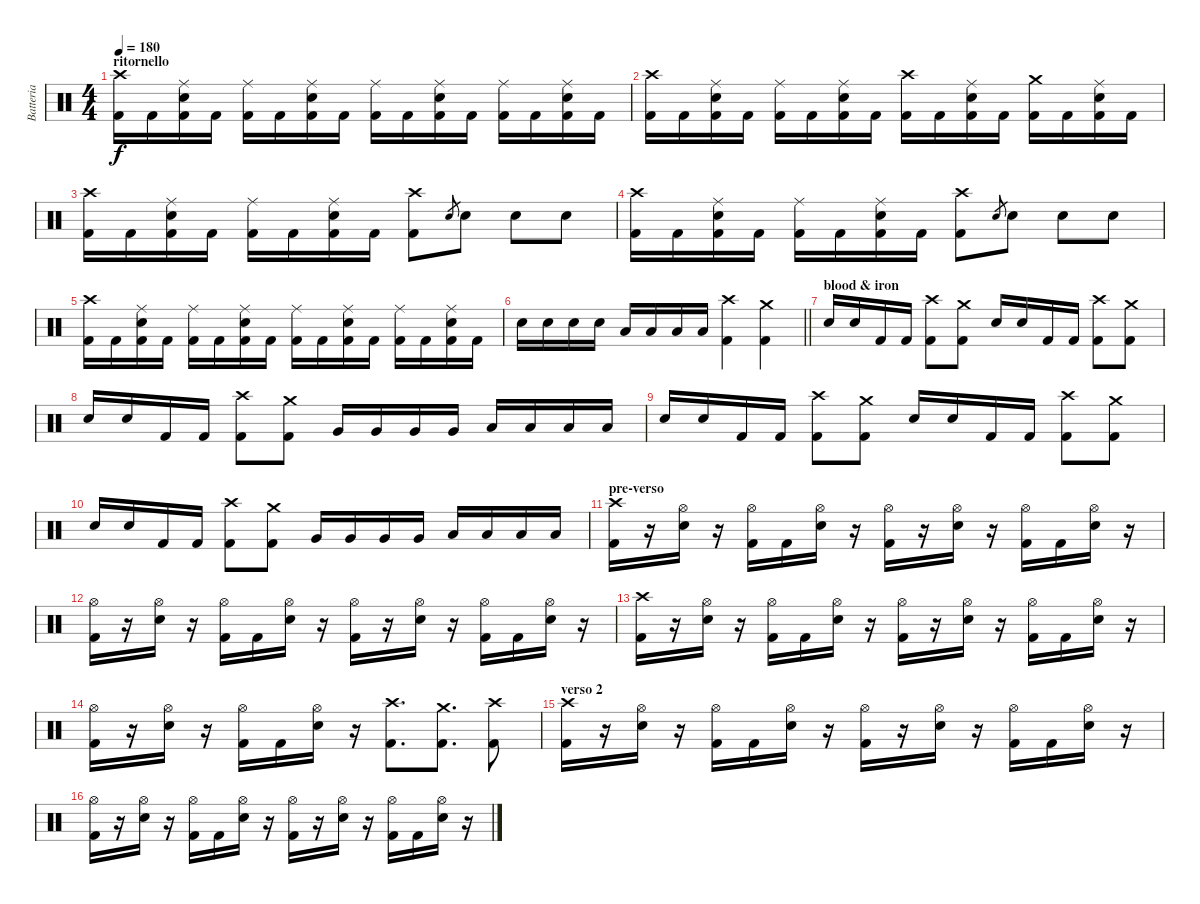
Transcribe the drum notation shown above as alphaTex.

\track ("Batteria" "Batteria") {instrument percussion}
\staff {score}
\articulation defaults
\ts (4 4)
\section ("" "ritornello")
\tempo 180
\clef neutral
\ks c
("Crash high (hit)" "Kick (hit) 2").16{dy f} "Kick (hit) 2".16 ("Ride (middle)" "Snare (hit) 2" "Kick (hit) 2").16 "Kick (hit) 2".16 ("Ride (middle)" "Kick (hit) 2").16 "Kick (hit) 2".16 ("Ride (middle)" "Snare (hit) 2" "Kick (hit) 2").16 "Kick (hit) 2".16 ("Ride (middle)" "Kick (hit) 2").16 "Kick (hit) 2".16 ("Ride (middle)" "Snare (hit) 2" "Kick (hit) 2").16 "Kick (hit) 2".16 ("Ride (middle)" "Kick (hit) 2").16 "Kick (hit) 2".16 ("Ride (middle)" "Snare (hit) 2" "Kick (hit) 2").16 "Kick (hit) 2".16 |
("Crash high (hit)" "Kick (hit) 2").16 "Kick (hit) 2".16 ("Ride (middle)" "Snare (hit) 2" "Kick (hit) 2").16 "Kick (hit) 2".16 ("Ride (middle)" "Kick (hit) 2").16 "Kick (hit) 2".16 ("Ride (middle)" "Snare (hit) 2" "Kick (hit) 2").16 "Kick (hit) 2".16 ("Crash high (hit)" "Kick (hit) 2").16 "Kick (hit) 2".16 ("Ride (middle)" "Snare (hit) 2" "Kick (hit) 2").16 "Kick (hit) 2".16 ("Crash medium (hit)" "Kick (hit) 2").16 "Kick (hit) 2".16 ("Ride (middle)" "Snare (hit) 2" "Kick (hit) 2").16 "Kick (hit) 2".16 |
("Crash high (hit)" "Kick (hit) 2").16 "Kick (hit) 2".16 ("Ride (middle)" "Snare (hit) 2" "Kick (hit) 2").16 "Kick (hit) 2".16 ("Ride (middle)" "Kick (hit) 2").16 "Kick (hit) 2".16 ("Ride (middle)" "Snare (hit) 2" "Kick (hit) 2").16 "Kick (hit) 2".16 ("Crash high (hit)" "Kick (hit) 2").8 "Snare (hit) 2".8{gr} "Snare (hit) 2".8 "Snare (hit) 2".8 "Snare (hit) 2".8 |
("Crash high (hit)" "Kick (hit) 2").16 "Kick (hit) 2".16 ("Ride (middle)" "Snare (hit) 2" "Kick (hit) 2").16 "Kick (hit) 2".16 ("Ride (middle)" "Kick (hit) 2").16 "Kick (hit) 2".16 ("Ride (middle)" "Snare (hit) 2" "Kick (hit) 2").16 "Kick (hit) 2".16 ("Crash high (hit)" "Kick (hit) 2").8 "Snare (hit) 2".8{gr} "Snare (hit) 2".8 "Snare (hit) 2".8 "Snare (hit) 2".8 |
("Crash high (hit)" "Kick (hit) 2").16 "Kick (hit) 2".16 ("Ride (middle)" "Snare (hit) 2" "Kick (hit) 2").16 "Kick (hit) 2".16 ("Ride (middle)" "Kick (hit) 2").16 "Kick (hit) 2".16 ("Ride (middle)" "Snare (hit) 2" "Kick (hit) 2").16 "Kick (hit) 2".16 ("Ride (middle)" "Kick (hit) 2").16 "Kick (hit) 2".16 ("Ride (middle)" "Snare (hit) 2" "Kick (hit) 2").16 "Kick (hit) 2".16 ("Ride (middle)" "Kick (hit) 2").16 "Kick (hit) 2".16 ("Ride (middle)" "Snare (hit) 2" "Kick (hit) 2").16 "Kick (hit) 2".16 |
\barLineRight lightlight "Snare (hit) 2".16 "Snare (hit) 2".16 "Snare (hit) 2".16 "Snare (hit) 2".16 "Low Floor Tom (hit)".16 "Low Floor Tom (hit)".16 "Low Floor Tom (hit)".16 "Low Floor Tom (hit)".16
("Crash high (hit)" "Kick (hit) 2").4 ("Crash medium (hit)" "Kick (hit) 2").4 |
\section ("" "blood & iron")
"Snare (hit) 2".16 "Snare (hit) 2".16 "Kick (hit) 2".16 "Kick (hit) 2".16 ("Crash high (hit)" "Kick (hit) 2").8 ("Crash medium (hit)" "Kick (hit) 2").8 "Snare (hit) 2".16 "Snare (hit) 2".16 "Kick (hit) 2".16 "Kick (hit) 2".16 ("Crash high (hit)" "Kick (hit) 2").8 ("Crash medium (hit)" "Kick (hit) 2").8 |
"Snare (hit) 2".16 "Snare (hit) 2".16 "Kick (hit) 2".16 "Kick (hit) 2".16 ("Crash high (hit)" "Kick (hit) 2").8 ("Crash medium (hit)" "Kick (hit) 2").8 "Very Low Tom (hit)".16 "Very Low Tom (hit)".16 "Very Low Tom (hit)".16 "Very Low Tom (hit)".16 "Low Floor Tom (hit)".16 "Low Floor Tom (hit)".16 "Low Floor Tom (hit)".16 "Low Floor Tom (hit)".16 |
"Snare (hit) 2".16 "Snare (hit) 2".16 "Kick (hit) 2".16 "Kick (hit) 2".16 ("Crash high (hit)" "Kick (hit) 2").8 ("Crash medium (hit)" "Kick (hit) 2").8 "Snare (hit) 2".16 "Snare (hit) 2".16 "Kick (hit) 2".16 "Kick (hit) 2".16 ("Crash high (hit)" "Kick (hit) 2").8 ("Crash medium (hit)" "Kick (hit) 2").8 |
"Snare (hit) 2".16 "Snare (hit) 2".16 "Kick (hit) 2".16 "Kick (hit) 2".16 ("Crash high (hit)" "Kick (hit) 2").8 ("Crash medium (hit)" "Kick (hit) 2").8 "Very Low Tom (hit)".16 "Very Low Tom (hit)".16 "Very Low Tom (hit)".16 "Very Low Tom (hit)".16 "Low Floor Tom (hit)".16 "Low Floor Tom (hit)".16 "Low Floor Tom (hit)".16 "Low Floor Tom (hit)".16 |
\section ("" "pre-verso")
("Crash high (hit)" "Kick (hit) 2").16 r.16 ("Hi-Hat (open)" "Snare (hit) 2").16 r.16 ("Hi-Hat (open)" "Kick (hit) 2").16 "Kick (hit) 2".16 ("Hi-Hat (open)" "Snare (hit) 2").16 r.16 ("Hi-Hat (open)" "Kick (hit) 2").16 r.16 ("Hi-Hat (open)" "Snare (hit) 2").16 r.16 ("Hi-Hat (open)" "Kick (hit) 2").16 "Kick (hit) 2".16 ("Hi-Hat (open)" "Snare (hit) 2").16 r.16 |
("Hi-Hat (open)" "Kick (hit) 2").16 r.16 ("Hi-Hat (open)" "Snare (hit) 2").16 r.16 ("Hi-Hat (open)" "Kick (hit) 2").16 "Kick (hit) 2".16 ("Hi-Hat (open)" "Snare (hit) 2").16 r.16 ("Hi-Hat (open)" "Kick (hit) 2").16 r.16 ("Hi-Hat (open)" "Snare (hit) 2").16 r.16 ("Hi-Hat (open)" "Kick (hit) 2").16 "Kick (hit) 2".16 ("Hi-Hat (open)" "Snare (hit) 2").16 r.16 |
("Crash high (hit)" "Kick (hit) 2").16 r.16 ("Hi-Hat (open)" "Snare (hit) 2").16 r.16 ("Hi-Hat (open)" "Kick (hit) 2").16 "Kick (hit) 2".16 ("Hi-Hat (open)" "Snare (hit) 2").16 r.16 ("Hi-Hat (open)" "Kick (hit) 2").16 r.16 ("Hi-Hat (open)" "Snare (hit) 2").16 r.16 ("Hi-Hat (open)" "Kick (hit) 2").16 "Kick (hit) 2".16 ("Hi-Hat (open)" "Snare (hit) 2").16 r.16 |
("Hi-Hat (open)" "Kick (hit) 2").16 r.16 ("Hi-Hat (open)" "Snare (hit) 2").16 r.16 ("Hi-Hat (open)" "Kick (hit) 2").16 "Kick (hit) 2".16 ("Hi-Hat (open)" "Snare (hit) 2").16 r.16 ("Crash high (hit)" "Kick (hit) 2").8{d} ("Crash medium (hit)" "Kick (hit) 2").8{d} ("Crash high (hit)" "Kick (hit) 2").8 |
\section ("" "verso 2")
("Crash high (hit)" "Kick (hit) 2").16 r.16 ("Hi-Hat (open)" "Snare (hit) 2").16 r.16 ("Hi-Hat (open)" "Kick (hit) 2").16 "Kick (hit) 2".16 ("Hi-Hat (open)" "Snare (hit) 2").16 r.16 ("Hi-Hat (open)" "Kick (hit) 2").16 r.16 ("Hi-Hat (open)" "Snare (hit) 2").16 r.16 ("Hi-Hat (open)" "Kick (hit) 2").16 "Kick (hit) 2".16 ("Hi-Hat (open)" "Snare (hit) 2").16 r.16 |
("Hi-Hat (open)" "Kick (hit) 2").16 r.16 ("Hi-Hat (open)" "Snare (hit) 2").16 r.16 ("Hi-Hat (open)" "Kick (hit) 2").16 "Kick (hit) 2".16 ("Hi-Hat (open)" "Snare (hit) 2").16 r.16 ("Hi-Hat (open)" "Kick (hit) 2").16 r.16 ("Hi-Hat (open)" "Snare (hit) 2").16 r.16 ("Hi-Hat (open)" "Kick (hit) 2").16 "Kick (hit) 2".16 ("Hi-Hat (open)" "Snare (hit) 2").16 r.16
